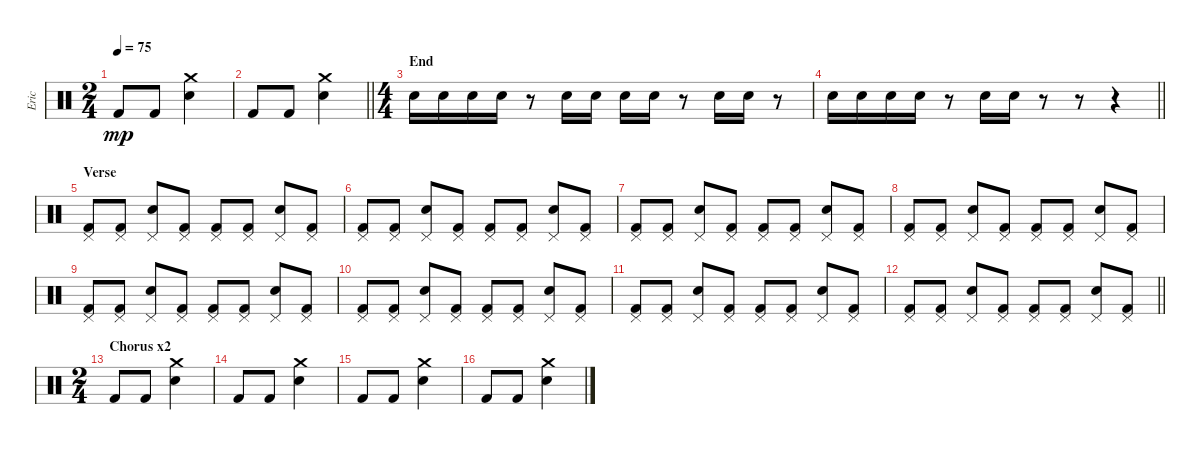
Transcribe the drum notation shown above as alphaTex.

\track ("Eric" "Eric") {instrument percussion}
\staff {score}
\articulation defaults
\ts (2 4)
\tempo 75
\clef neutral
\ks c "Kick (hit) 2".8{dy mp} "Kick (hit) 2".8
("Crash medium (hit)" "Snare (hit) 2").4 |
\barLineRight lightlight "Kick (hit) 2".8 "Kick (hit) 2".8
("Crash medium (hit)" "Snare (hit) 2").4 |
\ts (4 4)
\section ("" "End")
"Snare (hit) 2".16 "Snare (hit) 2".16 "Snare (hit) 2".16 "Snare (hit) 2".16 r.8 "Snare (hit) 2".16 "Snare (hit) 2".16 "Snare (hit) 2".16 "Snare (hit) 2".16 r.8 "Snare (hit) 2".16 "Snare (hit) 2".16 r.8 |
\barLineRight lightlight "Snare (hit) 2".16 "Snare (hit) 2".16 "Snare (hit) 2".16 "Snare (hit) 2".16
r.8 "Snare (hit) 2".16 "Snare (hit) 2".16 r.8 r.8 r.4 |
\section ("" "Verse")
("Pedal Hi-Hat (hit)" "Kick (hit) 2").8 ("Pedal Hi-Hat (hit)" "Kick (hit) 2").8 ("Pedal Hi-Hat (hit)" "Snare (hit) 2").8 ("Pedal Hi-Hat (hit)" "Kick (hit) 2").8 ("Pedal Hi-Hat (hit)" "Kick (hit) 2").8 ("Pedal Hi-Hat (hit)" "Kick (hit) 2").8 ("Pedal Hi-Hat (hit)" "Snare (hit) 2").8 ("Pedal Hi-Hat (hit)" "Kick (hit) 2").8 |
("Pedal Hi-Hat (hit)" "Kick (hit) 2").8 ("Pedal Hi-Hat (hit)" "Kick (hit) 2").8 ("Pedal Hi-Hat (hit)" "Snare (hit) 2").8 ("Pedal Hi-Hat (hit)" "Kick (hit) 2").8 ("Pedal Hi-Hat (hit)" "Kick (hit) 2").8 ("Pedal Hi-Hat (hit)" "Kick (hit) 2").8 ("Pedal Hi-Hat (hit)" "Snare (hit) 2").8 ("Pedal Hi-Hat (hit)" "Kick (hit) 2").8 |
("Pedal Hi-Hat (hit)" "Kick (hit) 2").8 ("Pedal Hi-Hat (hit)" "Kick (hit) 2").8 ("Pedal Hi-Hat (hit)" "Snare (hit) 2").8 ("Pedal Hi-Hat (hit)" "Kick (hit) 2").8 ("Pedal Hi-Hat (hit)" "Kick (hit) 2").8 ("Pedal Hi-Hat (hit)" "Kick (hit) 2").8 ("Pedal Hi-Hat (hit)" "Snare (hit) 2").8 ("Pedal Hi-Hat (hit)" "Kick (hit) 2").8 |
("Pedal Hi-Hat (hit)" "Kick (hit) 2").8 ("Pedal Hi-Hat (hit)" "Kick (hit) 2").8 ("Pedal Hi-Hat (hit)" "Snare (hit) 2").8 ("Pedal Hi-Hat (hit)" "Kick (hit) 2").8 ("Pedal Hi-Hat (hit)" "Kick (hit) 2").8 ("Pedal Hi-Hat (hit)" "Kick (hit) 2").8 ("Pedal Hi-Hat (hit)" "Snare (hit) 2").8 ("Pedal Hi-Hat (hit)" "Kick (hit) 2").8 |
("Pedal Hi-Hat (hit)" "Kick (hit) 2").8 ("Pedal Hi-Hat (hit)" "Kick (hit) 2").8 ("Pedal Hi-Hat (hit)" "Snare (hit) 2").8 ("Pedal Hi-Hat (hit)" "Kick (hit) 2").8 ("Pedal Hi-Hat (hit)" "Kick (hit) 2").8 ("Pedal Hi-Hat (hit)" "Kick (hit) 2").8 ("Pedal Hi-Hat (hit)" "Snare (hit) 2").8 ("Pedal Hi-Hat (hit)" "Kick (hit) 2").8 |
("Pedal Hi-Hat (hit)" "Kick (hit) 2").8 ("Pedal Hi-Hat (hit)" "Kick (hit) 2").8 ("Pedal Hi-Hat (hit)" "Snare (hit) 2").8 ("Pedal Hi-Hat (hit)" "Kick (hit) 2").8 ("Pedal Hi-Hat (hit)" "Kick (hit) 2").8 ("Pedal Hi-Hat (hit)" "Kick (hit) 2").8 ("Pedal Hi-Hat (hit)" "Snare (hit) 2").8 ("Pedal Hi-Hat (hit)" "Kick (hit) 2").8 |
("Pedal Hi-Hat (hit)" "Kick (hit) 2").8 ("Pedal Hi-Hat (hit)" "Kick (hit) 2").8 ("Pedal Hi-Hat (hit)" "Snare (hit) 2").8 ("Pedal Hi-Hat (hit)" "Kick (hit) 2").8 ("Pedal Hi-Hat (hit)" "Kick (hit) 2").8 ("Pedal Hi-Hat (hit)" "Kick (hit) 2").8 ("Pedal Hi-Hat (hit)" "Snare (hit) 2").8 ("Pedal Hi-Hat (hit)" "Kick (hit) 2").8 |
\barLineRight lightlight
("Pedal Hi-Hat (hit)" "Kick (hit) 2").8 ("Pedal Hi-Hat (hit)" "Kick (hit) 2").8 ("Pedal Hi-Hat (hit)" "Snare (hit) 2").8 ("Pedal Hi-Hat (hit)" "Kick (hit) 2").8 ("Pedal Hi-Hat (hit)" "Kick (hit) 2").8 ("Pedal Hi-Hat (hit)" "Kick (hit) 2").8 ("Pedal Hi-Hat (hit)" "Snare (hit) 2").8 ("Pedal Hi-Hat (hit)" "Kick (hit) 2").8 |
\ts (2 4)
\section ("" "Chorus x2")
"Kick (hit) 2".8 "Kick (hit) 2".8 ("Crash medium (hit)" "Snare (hit) 2").4 |
"Kick (hit) 2".8 "Kick (hit) 2".8 ("Crash medium (hit)" "Snare (hit) 2").4 |
"Kick (hit) 2".8 "Kick (hit) 2".8 ("Crash medium (hit)" "Snare (hit) 2").4 |
"Kick (hit) 2".8 "Kick (hit) 2".8 ("Crash medium (hit)" "Snare (hit) 2").4
